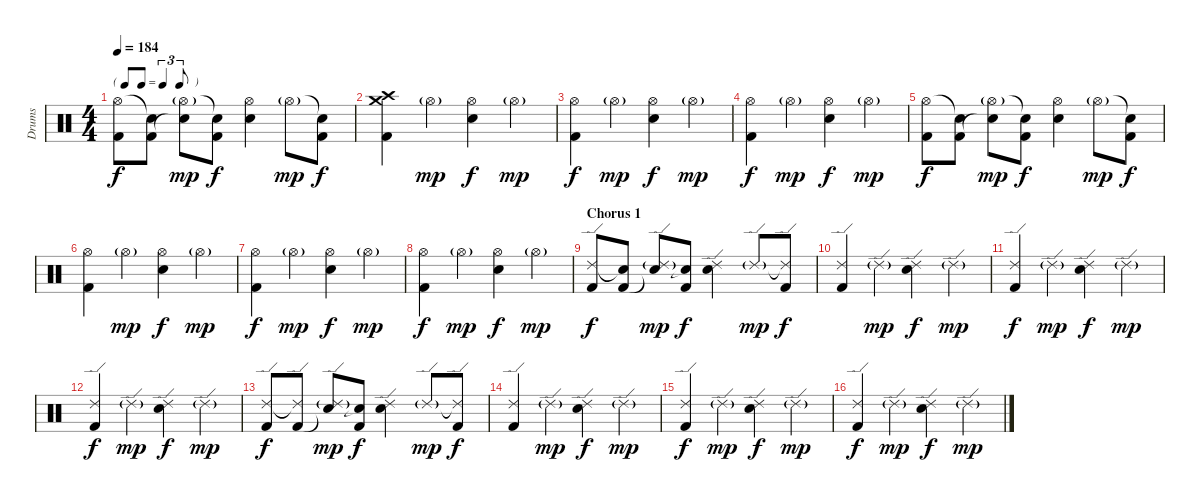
\track ("Drums" "Drums") {instrument percussion}
\staff {score}
\articulation defaults
\ts (4 4)
\tf triplet8th
\tempo 184
\clef neutral
\ks c
("Hi-Hat (open)" "Kick (hit) 2").8{dy f} ("Snare (hit)"{t} "Kick (hit) 2").8 ("Hi-Hat (open)"{g} "Snare (hit)"{t}).8{dy mp} ("Snare (hit)"{t} "Kick (hit) 2").8{dy f} ("Hi-Hat (open)" "Electric Snare (hit)").4 "Hi-Hat (open)"{g}.8{dy mp} ("Snare (hit)"{t} "Kick (hit) 2").8{dy f} |
("Crash high (hit)" "Crash medium (hit)" "Kick (hit) 2").4 "Hi-Hat (open)"{g}.4{dy mp} ("Hi-Hat (open)" "Electric Snare (hit)").4{dy f} "Hi-Hat (open)"{g}.4{dy mp} |
("Hi-Hat (open)" "Kick (hit) 2").4{dy f} "Hi-Hat (open)"{g}.4{dy mp} ("Hi-Hat (open)" "Electric Snare (hit)").4{dy f} "Hi-Hat (open)"{g}.4{dy mp} |
("Hi-Hat (open)" "Kick (hit) 2").4{dy f} "Hi-Hat (open)"{g}.4{dy mp} ("Hi-Hat (open)" "Electric Snare (hit)").4{dy f} "Hi-Hat (open)"{g}.4{dy mp} |
("Hi-Hat (open)" "Kick (hit) 2").8{dy f} ("Snare (hit)"{t} "Kick (hit) 2").8 ("Hi-Hat (open)"{g} "Snare (hit)"{t}).8{dy mp} ("Snare (hit)"{t} "Kick (hit) 2").8{dy f} ("Hi-Hat (open)" "Electric Snare (hit)").4 "Hi-Hat (open)"{g}.8{dy mp} ("Snare (hit)"{t} "Kick (hit) 2").8{dy f} |
("Hi-Hat (open)" "Kick (hit) 2").4 "Hi-Hat (open)"{g}.4{dy mp} ("Hi-Hat (open)" "Electric Snare (hit)").4{dy f} "Hi-Hat (open)"{g}.4{dy mp} |
("Hi-Hat (open)" "Kick (hit) 2").4{dy f} "Hi-Hat (open)"{g}.4{dy mp} ("Hi-Hat (open)" "Electric Snare (hit)").4{dy f} "Hi-Hat (open)"{g}.4{dy mp} |
("Hi-Hat (open)" "Kick (hit) 2").4{dy f} "Hi-Hat (open)"{g}.4{dy mp} ("Hi-Hat (open)" "Electric Snare (hit)").4{dy f} "Hi-Hat (open)"{g}.4{dy mp} |
\section ("" "Chorus 1")
("Ride (edge) 2" "Kick (hit) 2").8{dy f} ("Snare (hit)"{t} "Kick (hit) 2").8 ("Ride (edge) 2"{g} "Snare (hit)"{t}).8{dy mp} ("Snare (hit)"{t} "Kick (hit) 2").8{dy f} ("Ride (edge) 2" "Electric Snare (hit)").4 "Ride (edge) 2"{g}.8{dy mp} ("Ride (edge) 2"{t} "Kick (hit) 2").8{dy f} |
("Ride (edge) 2" "Kick (hit) 2").4 "Ride (edge) 2"{g}.4{dy mp} ("Ride (edge) 2" "Electric Snare (hit)").4{dy f} "Ride (edge) 2"{g}.4{dy mp} |
("Ride (edge) 2" "Kick (hit) 2").4{dy f} "Ride (edge) 2"{g}.4{dy mp} ("Ride (edge) 2" "Electric Snare (hit)").4{dy f} "Ride (edge) 2"{g}.4{dy mp} |
("Ride (edge) 2" "Kick (hit) 2").4{dy f} "Ride (edge) 2"{g}.4{dy mp} ("Ride (edge) 2" "Electric Snare (hit)").4{dy f} "Ride (edge) 2"{g}.4{dy mp} |
("Ride (edge) 2" "Kick (hit) 2").8{dy f} ("Ride (edge) 2"{t} "Kick (hit) 2").8 ("Ride (edge) 2"{g} "Snare (hit)"{t}).8{dy mp} ("Snare (hit)"{t} "Kick (hit) 2").8{dy f} ("Ride (edge) 2" "Electric Snare (hit)").4 "Ride (edge) 2"{g}.8{dy mp} ("Ride (edge) 2"{t} "Kick (hit) 2").8{dy f} |
("Ride (edge) 2" "Kick (hit) 2").4 "Ride (edge) 2"{g}.4{dy mp} ("Ride (edge) 2" "Electric Snare (hit)").4{dy f} "Ride (edge) 2"{g}.4{dy mp} |
("Ride (edge) 2" "Kick (hit) 2").4{dy f} "Ride (edge) 2"{g}.4{dy mp} ("Ride (edge) 2" "Electric Snare (hit)").4{dy f} "Ride (edge) 2"{g}.4{dy mp} |
("Ride (edge) 2" "Kick (hit) 2").4{dy f} "Ride (edge) 2"{g}.4{dy mp} ("Ride (edge) 2" "Electric Snare (hit)").4{dy f} "Ride (edge) 2"{g}.4{dy mp}
